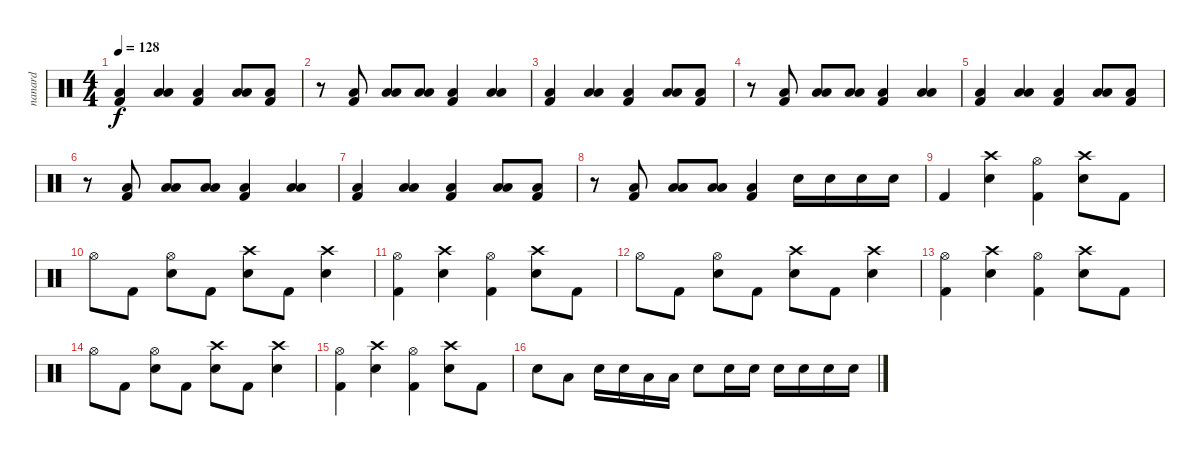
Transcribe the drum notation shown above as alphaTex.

\track ("nanard" "nanard") {instrument percussion}
\staff {score}
\articulation defaults
\ts (4 4)
\tempo 128
\clef neutral
\ks c
("Low Floor Tom (hit)" "Kick (hit) 2").4{dy f} ("Low Tom (hit)" "Low Floor Tom (hit)").4 ("Low Floor Tom (hit)" "Kick (hit) 2").4 ("Low Tom (hit)" "Low Floor Tom (hit)").8 ("Low Floor Tom (hit)" "Kick (hit) 2").8 |
r.8 ("Low Floor Tom (hit)" "Kick (hit) 2").8 ("Low Tom (hit)" "Low Floor Tom (hit)").8 ("Low Tom (hit)" "Low Floor Tom (hit)").8 ("Low Floor Tom (hit)" "Kick (hit) 2").4 ("Low Tom (hit)" "Low Floor Tom (hit)").4 |
("Low Floor Tom (hit)" "Kick (hit) 2").4 ("Low Tom (hit)" "Low Floor Tom (hit)").4 ("Low Floor Tom (hit)" "Kick (hit) 2").4 ("Low Tom (hit)" "Low Floor Tom (hit)").8 ("Low Floor Tom (hit)" "Kick (hit) 2").8 |
r.8 ("Low Floor Tom (hit)" "Kick (hit) 2").8 ("Low Tom (hit)" "Low Floor Tom (hit)").8 ("Low Tom (hit)" "Low Floor Tom (hit)").8 ("Low Floor Tom (hit)" "Kick (hit) 2").4 ("Low Tom (hit)" "Low Floor Tom (hit)").4 |
("Low Floor Tom (hit)" "Kick (hit) 2").4 ("Low Tom (hit)" "Low Floor Tom (hit)").4 ("Low Floor Tom (hit)" "Kick (hit) 2").4 ("Low Tom (hit)" "Low Floor Tom (hit)").8 ("Low Floor Tom (hit)" "Kick (hit) 2").8 |
r.8 ("Low Floor Tom (hit)" "Kick (hit) 2").8 ("Low Tom (hit)" "Low Floor Tom (hit)").8 ("Low Tom (hit)" "Low Floor Tom (hit)").8 ("Low Floor Tom (hit)" "Kick (hit) 2").4 ("Low Tom (hit)" "Low Floor Tom (hit)").4 |
("Low Floor Tom (hit)" "Kick (hit) 2").4 ("Low Tom (hit)" "Low Floor Tom (hit)").4 ("Low Floor Tom (hit)" "Kick (hit) 2").4 ("Low Tom (hit)" "Low Floor Tom (hit)").8 ("Low Floor Tom (hit)" "Kick (hit) 2").8 |
r.8 ("Low Floor Tom (hit)" "Kick (hit) 2").8 ("Low Tom (hit)" "Low Floor Tom (hit)").8 ("Low Tom (hit)" "Low Floor Tom (hit)").8 ("Low Floor Tom (hit)" "Kick (hit) 2").4 "Electric Snare (hit)".16 "Electric Snare (hit)".16 "Electric Snare (hit)".16 "Electric Snare (hit)".16 |
"Kick (hit) 2".4 ("Crash high (hit)" "Electric Snare (hit)").4 ("Hi-Hat (open)" "Kick (hit) 2").4 ("Crash high (hit)" "Electric Snare (hit)").8 "Kick (hit) 2".8 |
"Hi-Hat (open)".8 "Kick (hit) 2".8 ("Hi-Hat (open)" "Electric Snare (hit)").8 "Kick (hit) 2".8 ("Crash high (hit)" "Electric Snare (hit)").8 "Kick (hit) 2".8 ("Crash high (hit)" "Electric Snare (hit)").4 |
("Hi-Hat (open)" "Kick (hit) 2").4 ("Crash high (hit)" "Electric Snare (hit)").4 ("Hi-Hat (open)" "Kick (hit) 2").4 ("Crash high (hit)" "Electric Snare (hit)").8 "Kick (hit) 2".8 |
"Hi-Hat (open)".8 "Kick (hit) 2".8 ("Hi-Hat (open)" "Electric Snare (hit)").8 "Kick (hit) 2".8 ("Crash high (hit)" "Electric Snare (hit)").8 "Kick (hit) 2".8 ("Crash high (hit)" "Electric Snare (hit)").4 |
("Hi-Hat (open)" "Kick (hit) 2").4 ("Crash high (hit)" "Electric Snare (hit)").4 ("Hi-Hat (open)" "Kick (hit) 2").4 ("Crash high (hit)" "Electric Snare (hit)").8 "Kick (hit) 2".8 |
"Hi-Hat (open)".8 "Kick (hit) 2".8 ("Hi-Hat (open)" "Electric Snare (hit)").8 "Kick (hit) 2".8 ("Crash high (hit)" "Electric Snare (hit)").8 "Kick (hit) 2".8 ("Crash high (hit)" "Electric Snare (hit)").4 |
("Hi-Hat (open)" "Kick (hit) 2").4 ("Crash high (hit)" "Electric Snare (hit)").4 ("Hi-Hat (open)" "Kick (hit) 2").4 ("Crash high (hit)" "Electric Snare (hit)").8 "Kick (hit) 2".8 |
"Electric Snare (hit)".8 "Low Tom (hit)".8 "Electric Snare (hit)".16 "Electric Snare (hit)".16 "Low Tom (hit)".16 "Low Tom (hit)".16 "Electric Snare (hit)".8 "Electric Snare (hit)".16 "Electric Snare (hit)".16 "Electric Snare (hit)".16 "Electric Snare (hit)".16 "Electric Snare (hit)".16 "Electric Snare (hit)".16
